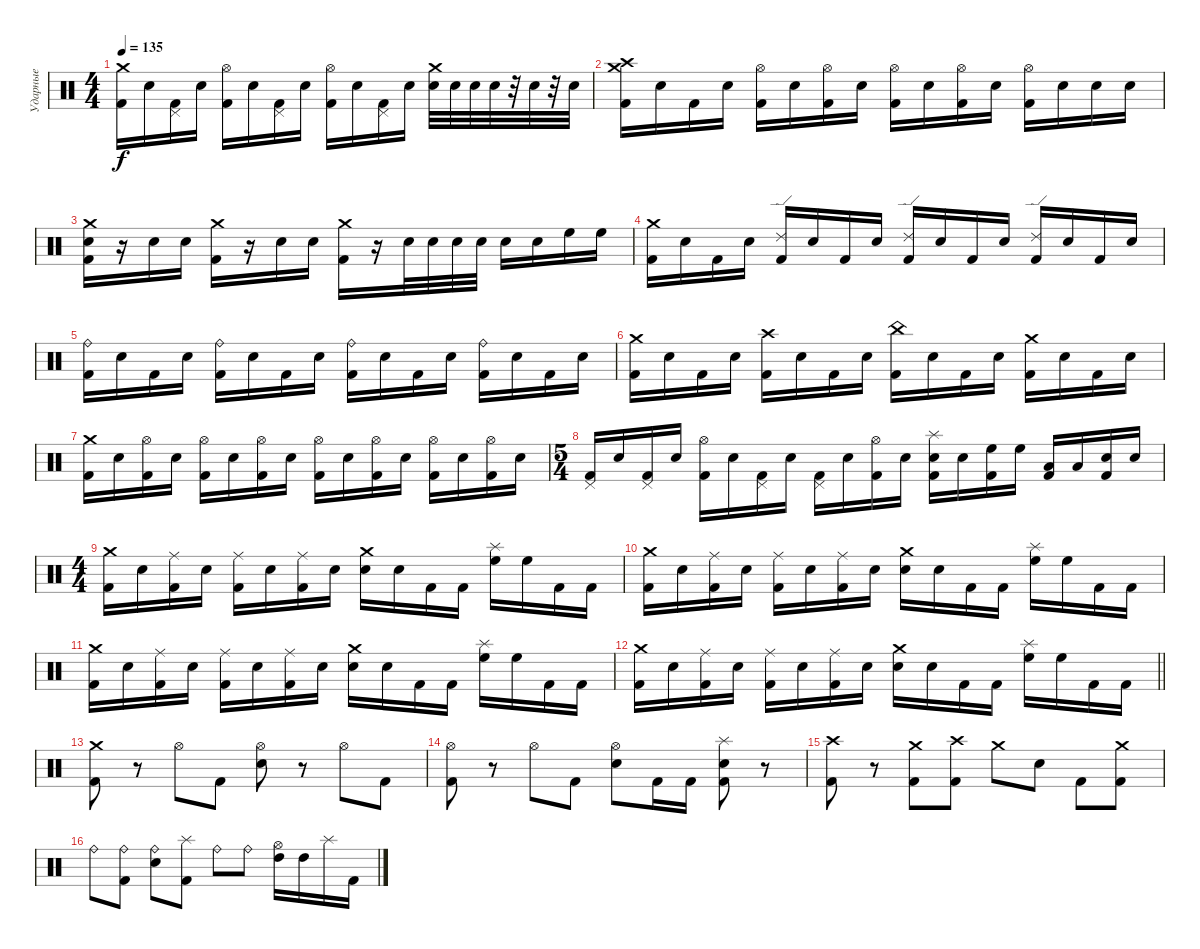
\track ("Ударные" "Ударные") {instrument percussion}
\staff {score}
\articulation defaults
\ts (4 4)
\tempo 135
\clef neutral
\ks c
("Crash medium (hit)" "Kick (hit) 2").16{dy f} "Electric Snare (hit)".16 ("Pedal Hi-Hat (hit)" "Kick (hit) 2").16 "Electric Snare (hit)".16 ("Hi-Hat (open)" "Kick (hit) 2").16 "Electric Snare (hit)".16 ("Pedal Hi-Hat (hit)" "Kick (hit) 2").16 "Electric Snare (hit)".16 ("Hi-Hat (open)" "Kick (hit) 2").16 "Electric Snare (hit)".16 ("Pedal Hi-Hat (hit)" "Kick (hit) 2").16 "Electric Snare (hit)".16 ("Crash medium (hit)" "Electric Snare (hit)").32 "Electric Snare (hit)".32 "Electric Snare (hit)".32 "Electric Snare (hit)".32 r.32 "Electric Snare (hit)".32 r.32 "Electric Snare (hit)".32 |
("Crash medium (hit)" "Crash high (hit)" "Kick (hit) 2").16 "Electric Snare (hit)".16 "Kick (hit) 2".16 "Electric Snare (hit)".16 ("Hi-Hat (open)" "Kick (hit) 2").16 "Electric Snare (hit)".16 ("Hi-Hat (open)" "Kick (hit) 2").16 "Electric Snare (hit)".16 ("Hi-Hat (open)" "Kick (hit) 2").16 "Electric Snare (hit)".16 ("Hi-Hat (open)" "Kick (hit) 2").16 "Electric Snare (hit)".16 ("Hi-Hat (open)" "Kick (hit) 2").16 "Electric Snare (hit)".16 "Electric Snare (hit)".16 "Electric Snare (hit)".16 |
("Crash medium (hit)" "Electric Snare (hit)" "Kick (hit) 2").16 r.16 "Electric Snare (hit)".16 "Electric Snare (hit)".16 ("Crash medium (hit)" "Kick (hit) 2").16 r.16 "Electric Snare (hit)".16 "Electric Snare (hit)".16 ("Crash medium (hit)" "Kick (hit) 2").16 r.16 "Electric Snare (hit)".32 "Electric Snare (hit)".32 "Electric Snare (hit)".32 "Electric Snare (hit)".32 "Electric Snare (hit)".16 "Electric Snare (hit)".16 "High Floor Tom (hit)".16 "High Floor Tom (hit)".16 |
("Crash medium (hit)" "Kick (hit) 2").16 "Electric Snare (hit)".16 "Kick (hit) 2".16 "Electric Snare (hit)".16 ("Ride (edge) 2" "Kick (hit) 2").16 "Electric Snare (hit)".16 "Kick (hit) 2".16 "Electric Snare (hit)".16 ("Ride (edge) 2" "Kick (hit) 2").16 "Electric Snare (hit)".16 "Kick (hit) 2".16 "Electric Snare (hit)".16 ("Ride (edge) 2" "Kick (hit) 2").16 "Electric Snare (hit)".16 "Kick (hit) 2".16 "Electric Snare (hit)".16 |
("Ride (bell)" "Kick (hit) 2").16 "Electric Snare (hit)".16 "Kick (hit) 2".16 "Electric Snare (hit)".16 ("Ride (bell)" "Kick (hit) 2").16 "Electric Snare (hit)".16 "Kick (hit) 2".16 "Electric Snare (hit)".16 ("Ride (bell)" "Kick (hit) 2").16 "Electric Snare (hit)".16 "Kick (hit) 2".16 "Electric Snare (hit)".16 ("Ride (bell)" "Kick (hit) 2").16 "Electric Snare (hit)".16 "Kick (hit) 2".16 "Electric Snare (hit)".16 |
("Crash medium (hit)" "Kick (hit) 2").16 "Electric Snare (hit)".16 "Kick (hit) 2".16 "Electric Snare (hit)".16 ("Crash high (hit)" "Kick (hit) 2").16 "Electric Snare (hit)".16 "Kick (hit) 2".16 "Electric Snare (hit)".16 ("China (hit)" "Kick (hit) 2").16 "Electric Snare (hit)".16 "Kick (hit) 2".16 "Electric Snare (hit)".16 ("Crash medium (hit)" "Kick (hit) 2").16 "Electric Snare (hit)".16 "Kick (hit) 2".16 "Electric Snare (hit)".16 |
("Crash medium (hit)" "Kick (hit) 2").16 "Electric Snare (hit)".16 ("Hi-Hat (open)" "Kick (hit) 2").16 "Electric Snare (hit)".16 ("Hi-Hat (open)" "Kick (hit) 2").16 "Electric Snare (hit)".16 ("Hi-Hat (open)" "Kick (hit) 2").16 "Electric Snare (hit)".16 ("Hi-Hat (open)" "Kick (hit) 2").16 "Electric Snare (hit)".16 ("Hi-Hat (open)" "Kick (hit) 2").16 "Electric Snare (hit)".16 ("Hi-Hat (open)" "Kick (hit) 2").16 "Electric Snare (hit)".16 ("Hi-Hat (open)" "Kick (hit) 2").16 "Electric Snare (hit)".16 |
\ts (5 4)
("Pedal Hi-Hat (hit)" "Kick (hit) 2").16 "Electric Snare (hit)".16 ("Pedal Hi-Hat (hit)" "Kick (hit) 2").16 "Electric Snare (hit)".16 ("Hi-Hat (open)" "Kick (hit) 2").16 "Electric Snare (hit)".16 ("Pedal Hi-Hat (hit)" "Kick (hit) 2").16 "Electric Snare (hit)".16 ("Pedal Hi-Hat (hit)" "Kick (hit) 2").16 "Electric Snare (hit)".16 ("Hi-Hat (open)" "Kick (hit) 2").16 "Electric Snare (hit)".16 ("Splash (hit)" "Electric Snare (hit)" "Kick (hit) 2").16 "Electric Snare (hit)".16 ("High Floor Tom (hit)" "Kick (hit) 2").16 "High Floor Tom (hit)".16 ("Low Tom (hit)" "Kick (hit) 2").16 "Low Tom (hit)".16 ("Electric Snare (hit)" "Kick (hit) 2").16 "Electric Snare (hit)".16 |
\ts (4 4)
("Crash medium (hit)" "Kick (hit) 2").16 "Electric Snare (hit)".16 ("Ride (middle)" "Kick (hit) 2").16 "Electric Snare (hit)".16 ("Ride (middle)" "Kick (hit) 2").16 "Electric Snare (hit)".16 ("Ride (middle)" "Kick (hit) 2").16 "Electric Snare (hit)".16 ("Crash medium (hit)" "Electric Snare (hit)").16 "Electric Snare (hit)".16 "Kick (hit) 2".16 "Kick (hit) 2".16 ("Splash (hit)" "High Floor Tom (hit)").16 "High Floor Tom (hit)".16 "Kick (hit) 2".16 "Kick (hit) 2".16 |
("Crash medium (hit)" "Kick (hit) 2").16 "Electric Snare (hit)".16 ("Ride (middle)" "Kick (hit) 2").16 "Electric Snare (hit)".16 ("Ride (middle)" "Kick (hit) 2").16 "Electric Snare (hit)".16 ("Ride (middle)" "Kick (hit) 2").16 "Electric Snare (hit)".16 ("Crash medium (hit)" "Electric Snare (hit)").16 "Electric Snare (hit)".16 "Kick (hit) 2".16 "Kick (hit) 2".16 ("Splash (hit)" "High Floor Tom (hit)").16 "High Floor Tom (hit)".16 "Kick (hit) 2".16 "Kick (hit) 2".16 |
("Crash medium (hit)" "Kick (hit) 2").16 "Electric Snare (hit)".16 ("Ride (middle)" "Kick (hit) 2").16 "Electric Snare (hit)".16 ("Ride (middle)" "Kick (hit) 2").16 "Electric Snare (hit)".16 ("Ride (middle)" "Kick (hit) 2").16 "Electric Snare (hit)".16 ("Crash medium (hit)" "Electric Snare (hit)").16 "Electric Snare (hit)".16 "Kick (hit) 2".16 "Kick (hit) 2".16 ("Splash (hit)" "High Floor Tom (hit)").16 "High Floor Tom (hit)".16 "Kick (hit) 2".16 "Kick (hit) 2".16 |
\barLineRight lightlight
("Crash medium (hit)" "Kick (hit) 2").16 "Electric Snare (hit)".16 ("Ride (middle)" "Kick (hit) 2").16 "Electric Snare (hit)".16 ("Ride (middle)" "Kick (hit) 2").16 "Electric Snare (hit)".16 ("Ride (middle)" "Kick (hit) 2").16 "Electric Snare (hit)".16 ("Crash medium (hit)" "Electric Snare (hit)").16 "Electric Snare (hit)".16 "Kick (hit) 2".16 "Kick (hit) 2".16 ("Splash (hit)" "High Floor Tom (hit)").16 "High Floor Tom (hit)".16 "Kick (hit) 2".16 "Kick (hit) 2".16 |
("Crash medium (hit)" "Kick (hit) 2").8 r.8 "Hi-Hat (open)".8 "Kick (hit) 2".8 ("Hi-Hat (open)" "Electric Snare (hit)").8 r.8 "Hi-Hat (open)".8 "Kick (hit) 2".8 |
("Hi-Hat (open)" "Kick (hit) 2").8 r.8 "Hi-Hat (open)".8 "Kick (hit) 2".8 ("Hi-Hat (open)" "Electric Snare (hit)").8 "Kick (hit) 2".16 "Kick (hit) 2".16 ("Splash (hit)" "Electric Snare (hit)" "Kick (hit) 2").8 r.8 |
("Crash high (hit)" "Kick (hit) 2").8 r.8 ("Crash medium (hit)" "Kick (hit) 2").8 ("Crash high (hit)" "Kick (hit) 2").8 "Crash medium (hit)".8 "Electric Snare (hit)".8 "Kick (hit) 2".8 ("Crash medium (hit)" "Kick (hit) 2").8 |
"Ride (bell)".8 ("Ride (bell)" "Kick (hit) 2").8 ("Ride (bell)" "Electric Snare (hit)").8 ("Splash (hit)" "Kick (hit) 2").8 "Ride (bell)".8 "Ride (bell)".8 ("Hi-Hat (open)" "High Tom (hit)").16 "High Tom (hit)".16 "Splash (hit)".16 "Kick (hit) 2".16
